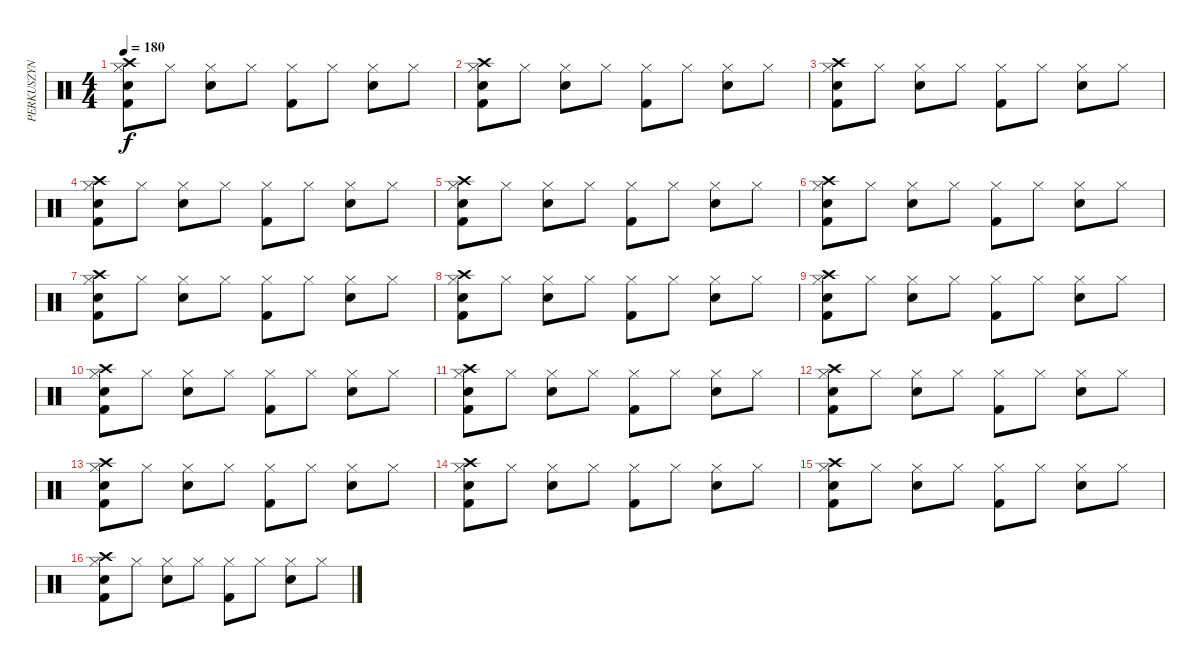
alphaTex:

\track ("PERKUSZYN" "PERKUSZYN") {instrument percussion}
\staff {score}
\articulation defaults
\ts (4 4)
\tempo 180
\clef neutral
\ks c
("Kick (hit) 2" "Snare (hit) 2" "Hi-Hat (closed)" "Crash high (hit)").8{dy f} "Hi-Hat (closed)".8 ("Snare (hit) 2" "Hi-Hat (closed)").8 "Hi-Hat (closed)".8 ("Kick (hit) 2" "Hi-Hat (closed)").8 "Hi-Hat (closed)".8 ("Snare (hit) 2" "Hi-Hat (closed)").8 "Hi-Hat (closed)".8 |
("Kick (hit) 2" "Snare (hit) 2" "Hi-Hat (closed)" "Crash high (hit)").8 "Hi-Hat (closed)".8 ("Snare (hit) 2" "Hi-Hat (closed)").8 "Hi-Hat (closed)".8 ("Kick (hit) 2" "Hi-Hat (closed)").8 "Hi-Hat (closed)".8 ("Snare (hit) 2" "Hi-Hat (closed)").8 "Hi-Hat (closed)".8 |
("Kick (hit) 2" "Snare (hit) 2" "Hi-Hat (closed)" "Crash high (hit)").8 "Hi-Hat (closed)".8 ("Snare (hit) 2" "Hi-Hat (closed)").8 "Hi-Hat (closed)".8 ("Kick (hit) 2" "Hi-Hat (closed)").8 "Hi-Hat (closed)".8 ("Snare (hit) 2" "Hi-Hat (closed)").8 "Hi-Hat (closed)".8 |
("Kick (hit) 2" "Snare (hit) 2" "Hi-Hat (closed)" "Crash high (hit)").8 "Hi-Hat (closed)".8 ("Snare (hit) 2" "Hi-Hat (closed)").8 "Hi-Hat (closed)".8 ("Kick (hit) 2" "Hi-Hat (closed)").8 "Hi-Hat (closed)".8 ("Snare (hit) 2" "Hi-Hat (closed)").8 "Hi-Hat (closed)".8 |
("Kick (hit) 2" "Snare (hit) 2" "Hi-Hat (closed)" "Crash high (hit)").8 "Hi-Hat (closed)".8 ("Snare (hit) 2" "Hi-Hat (closed)").8 "Hi-Hat (closed)".8 ("Kick (hit) 2" "Hi-Hat (closed)").8 "Hi-Hat (closed)".8 ("Snare (hit) 2" "Hi-Hat (closed)").8 "Hi-Hat (closed)".8 |
("Kick (hit) 2" "Snare (hit) 2" "Hi-Hat (closed)" "Crash high (hit)").8 "Hi-Hat (closed)".8 ("Snare (hit) 2" "Hi-Hat (closed)").8 "Hi-Hat (closed)".8 ("Kick (hit) 2" "Hi-Hat (closed)").8 "Hi-Hat (closed)".8 ("Snare (hit) 2" "Hi-Hat (closed)").8 "Hi-Hat (closed)".8 |
("Kick (hit) 2" "Snare (hit) 2" "Hi-Hat (closed)" "Crash high (hit)").8 "Hi-Hat (closed)".8 ("Snare (hit) 2" "Hi-Hat (closed)").8 "Hi-Hat (closed)".8 ("Kick (hit) 2" "Hi-Hat (closed)").8 "Hi-Hat (closed)".8 ("Snare (hit) 2" "Hi-Hat (closed)").8 "Hi-Hat (closed)".8 |
("Kick (hit) 2" "Snare (hit) 2" "Hi-Hat (closed)" "Crash high (hit)").8 "Hi-Hat (closed)".8 ("Snare (hit) 2" "Hi-Hat (closed)").8 "Hi-Hat (closed)".8 ("Kick (hit) 2" "Hi-Hat (closed)").8 "Hi-Hat (closed)".8 ("Snare (hit) 2" "Hi-Hat (closed)").8 "Hi-Hat (closed)".8 |
("Kick (hit) 2" "Snare (hit) 2" "Hi-Hat (closed)" "Crash high (hit)").8 "Hi-Hat (closed)".8 ("Snare (hit) 2" "Hi-Hat (closed)").8 "Hi-Hat (closed)".8 ("Kick (hit) 2" "Hi-Hat (closed)").8 "Hi-Hat (closed)".8 ("Snare (hit) 2" "Hi-Hat (closed)").8 "Hi-Hat (closed)".8 |
("Kick (hit) 2" "Snare (hit) 2" "Hi-Hat (closed)" "Crash high (hit)").8 "Hi-Hat (closed)".8 ("Snare (hit) 2" "Hi-Hat (closed)").8 "Hi-Hat (closed)".8 ("Kick (hit) 2" "Hi-Hat (closed)").8 "Hi-Hat (closed)".8 ("Snare (hit) 2" "Hi-Hat (closed)").8 "Hi-Hat (closed)".8 |
("Kick (hit) 2" "Snare (hit) 2" "Hi-Hat (closed)" "Crash high (hit)").8 "Hi-Hat (closed)".8 ("Snare (hit) 2" "Hi-Hat (closed)").8 "Hi-Hat (closed)".8 ("Kick (hit) 2" "Hi-Hat (closed)").8 "Hi-Hat (closed)".8 ("Snare (hit) 2" "Hi-Hat (closed)").8 "Hi-Hat (closed)".8 |
("Kick (hit) 2" "Snare (hit) 2" "Hi-Hat (closed)" "Crash high (hit)").8 "Hi-Hat (closed)".8 ("Snare (hit) 2" "Hi-Hat (closed)").8 "Hi-Hat (closed)".8 ("Kick (hit) 2" "Hi-Hat (closed)").8 "Hi-Hat (closed)".8 ("Snare (hit) 2" "Hi-Hat (closed)").8 "Hi-Hat (closed)".8 |
("Kick (hit) 2" "Snare (hit) 2" "Hi-Hat (closed)" "Crash high (hit)").8 "Hi-Hat (closed)".8 ("Snare (hit) 2" "Hi-Hat (closed)").8 "Hi-Hat (closed)".8 ("Kick (hit) 2" "Hi-Hat (closed)").8 "Hi-Hat (closed)".8 ("Snare (hit) 2" "Hi-Hat (closed)").8 "Hi-Hat (closed)".8 |
("Kick (hit) 2" "Snare (hit) 2" "Hi-Hat (closed)" "Crash high (hit)").8 "Hi-Hat (closed)".8 ("Snare (hit) 2" "Hi-Hat (closed)").8 "Hi-Hat (closed)".8 ("Kick (hit) 2" "Hi-Hat (closed)").8 "Hi-Hat (closed)".8 ("Snare (hit) 2" "Hi-Hat (closed)").8 "Hi-Hat (closed)".8 |
("Kick (hit) 2" "Snare (hit) 2" "Hi-Hat (closed)" "Crash high (hit)").8 "Hi-Hat (closed)".8 ("Snare (hit) 2" "Hi-Hat (closed)").8 "Hi-Hat (closed)".8 ("Kick (hit) 2" "Hi-Hat (closed)").8 "Hi-Hat (closed)".8 ("Snare (hit) 2" "Hi-Hat (closed)").8 "Hi-Hat (closed)".8 |
("Kick (hit) 2" "Snare (hit) 2" "Hi-Hat (closed)" "Crash high (hit)").8 "Hi-Hat (closed)".8 ("Snare (hit) 2" "Hi-Hat (closed)").8 "Hi-Hat (closed)".8 ("Kick (hit) 2" "Hi-Hat (closed)").8 "Hi-Hat (closed)".8 ("Snare (hit) 2" "Hi-Hat (closed)").8 "Hi-Hat (closed)".8
